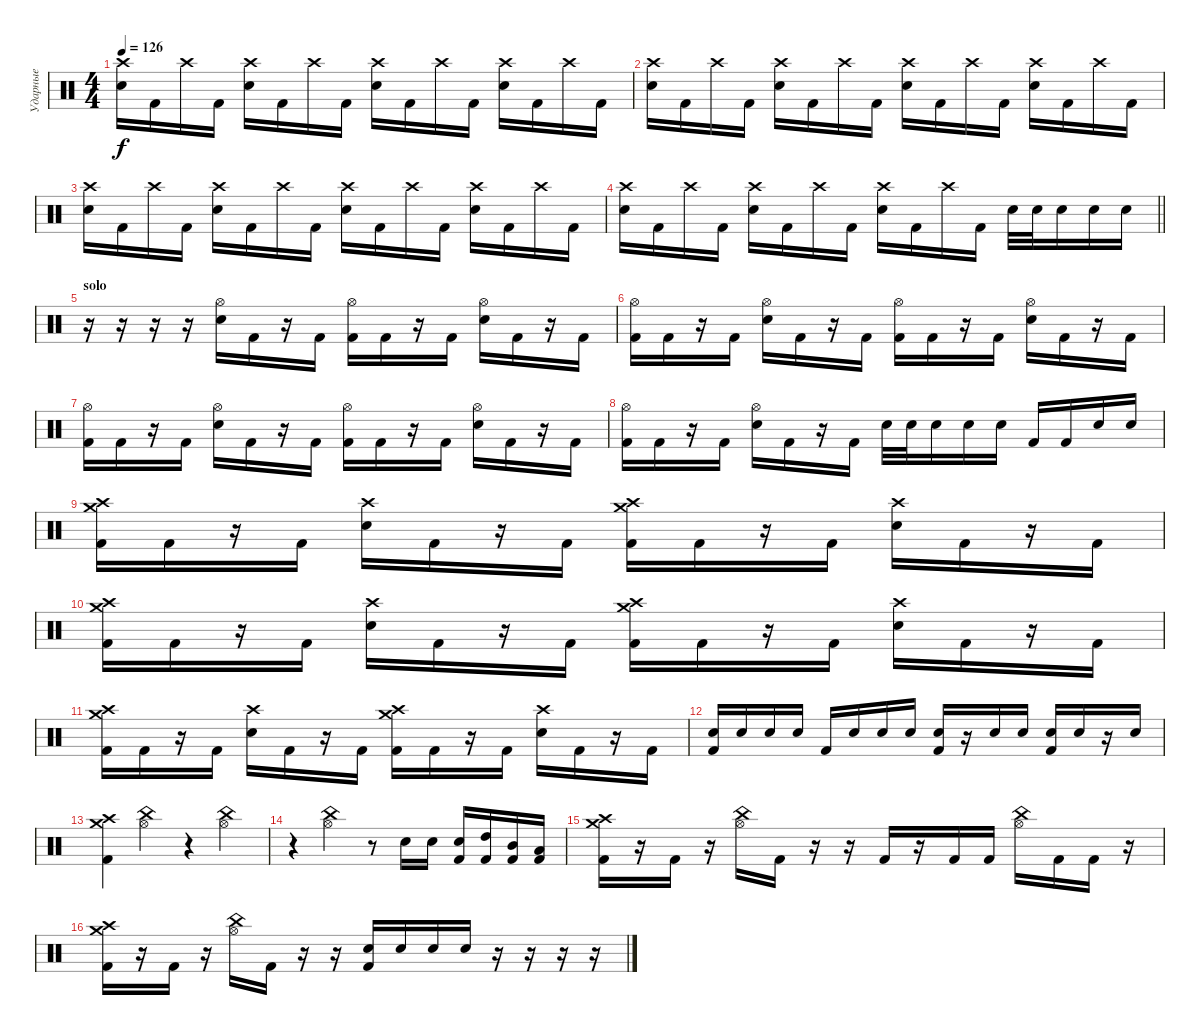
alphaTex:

\track ("Ударные" "Ударные") {instrument percussion}
\staff {score}
\articulation defaults
\ts (4 4)
\tempo 126
\clef neutral
\ks c
("Crash high (hit)" "Electric Snare (hit)").16{dy f} "Kick (hit) 2".16 "Crash high (hit)".16 "Kick (hit) 2".16 ("Crash high (hit)" "Electric Snare (hit)").16 "Kick (hit) 2".16 "Crash high (hit)".16 "Kick (hit) 2".16 ("Crash high (hit)" "Electric Snare (hit)").16 "Kick (hit) 2".16 "Crash high (hit)".16 "Kick (hit) 2".16 ("Crash high (hit)" "Electric Snare (hit)").16 "Kick (hit) 2".16 "Crash high (hit)".16 "Kick (hit) 2".16 |
("Crash high (hit)" "Electric Snare (hit)").16 "Kick (hit) 2".16 "Crash high (hit)".16 "Kick (hit) 2".16 ("Crash high (hit)" "Electric Snare (hit)").16 "Kick (hit) 2".16 "Crash high (hit)".16 "Kick (hit) 2".16 ("Crash high (hit)" "Electric Snare (hit)").16 "Kick (hit) 2".16 "Crash high (hit)".16 "Kick (hit) 2".16 ("Crash high (hit)" "Electric Snare (hit)").16 "Kick (hit) 2".16 "Crash high (hit)".16 "Kick (hit) 2".16 |
("Crash high (hit)" "Electric Snare (hit)").16 "Kick (hit) 2".16 "Crash high (hit)".16 "Kick (hit) 2".16 ("Crash high (hit)" "Electric Snare (hit)").16 "Kick (hit) 2".16 "Crash high (hit)".16 "Kick (hit) 2".16 ("Crash high (hit)" "Electric Snare (hit)").16 "Kick (hit) 2".16 "Crash high (hit)".16 "Kick (hit) 2".16 ("Crash high (hit)" "Electric Snare (hit)").16 "Kick (hit) 2".16 "Crash high (hit)".16 "Kick (hit) 2".16 |
\barLineRight lightlight
("Crash high (hit)" "Electric Snare (hit)").16 "Kick (hit) 2".16 "Crash high (hit)".16 "Kick (hit) 2".16 ("Crash high (hit)" "Electric Snare (hit)").16 "Kick (hit) 2".16 "Crash high (hit)".16 "Kick (hit) 2".16 ("Crash high (hit)" "Electric Snare (hit)").16 "Kick (hit) 2".16 "Crash high (hit)".16 "Kick (hit) 2".16 "Electric Snare (hit)".32 "Electric Snare (hit)".32 "Electric Snare (hit)".16 "Electric Snare (hit)".16 "Electric Snare (hit)".16 |
\section ("" "solo")
r.16 r.16 r.16 r.16 ("Hi-Hat (open)" "Electric Snare (hit)").16 "Kick (hit) 2".16 r.16 "Kick (hit) 2".16 ("Hi-Hat (open)" "Kick (hit) 2").16 "Kick (hit) 2".16 r.16 "Kick (hit) 2".16 ("Hi-Hat (open)" "Electric Snare (hit)").16 "Kick (hit) 2".16 r.16 "Kick (hit) 2".16 |
("Hi-Hat (open)" "Kick (hit) 2").16 "Kick (hit) 2".16 r.16 "Kick (hit) 2".16 ("Hi-Hat (open)" "Electric Snare (hit)").16 "Kick (hit) 2".16 r.16 "Kick (hit) 2".16 ("Hi-Hat (open)" "Kick (hit) 2").16 "Kick (hit) 2".16 r.16 "Kick (hit) 2".16 ("Hi-Hat (open)" "Electric Snare (hit)").16 "Kick (hit) 2".16 r.16 "Kick (hit) 2".16 |
("Hi-Hat (open)" "Kick (hit) 2").16 "Kick (hit) 2".16 r.16 "Kick (hit) 2".16 ("Hi-Hat (open)" "Electric Snare (hit)").16 "Kick (hit) 2".16 r.16 "Kick (hit) 2".16 ("Hi-Hat (open)" "Kick (hit) 2").16 "Kick (hit) 2".16 r.16 "Kick (hit) 2".16 ("Hi-Hat (open)" "Electric Snare (hit)").16 "Kick (hit) 2".16 r.16 "Kick (hit) 2".16 |
("Hi-Hat (open)" "Kick (hit) 2").16 "Kick (hit) 2".16 r.16 "Kick (hit) 2".16 ("Hi-Hat (open)" "Electric Snare (hit)").16 "Kick (hit) 2".16 r.16 "Kick (hit) 2".16 "Electric Snare (hit)".32 "Electric Snare (hit)".32 "Electric Snare (hit)".16 "Electric Snare (hit)".16 "Electric Snare (hit)".16 "Kick (hit) 2".16 "Kick (hit) 2".16 "Electric Snare (hit)".16 "Electric Snare (hit)".16 |
("Crash high (hit)" "Crash medium (hit)" "Kick (hit) 2").16 "Kick (hit) 2".16 r.16 "Kick (hit) 2".16 ("Crash high (hit)" "Electric Snare (hit)").16 "Kick (hit) 2".16 r.16 "Kick (hit) 2".16 ("Crash high (hit)" "Crash medium (hit)" "Kick (hit) 2").16 "Kick (hit) 2".16 r.16 "Kick (hit) 2".16 ("Crash high (hit)" "Electric Snare (hit)").16 "Kick (hit) 2".16 r.16 "Kick (hit) 2".16 |
("Crash high (hit)" "Crash medium (hit)" "Kick (hit) 2").16 "Kick (hit) 2".16 r.16 "Kick (hit) 2".16 ("Crash high (hit)" "Electric Snare (hit)").16 "Kick (hit) 2".16 r.16 "Kick (hit) 2".16 ("Crash high (hit)" "Crash medium (hit)" "Kick (hit) 2").16 "Kick (hit) 2".16 r.16 "Kick (hit) 2".16 ("Crash high (hit)" "Electric Snare (hit)").16 "Kick (hit) 2".16 r.16 "Kick (hit) 2".16 |
("Crash high (hit)" "Crash medium (hit)" "Kick (hit) 2").16 "Kick (hit) 2".16 r.16 "Kick (hit) 2".16 ("Crash high (hit)" "Electric Snare (hit)").16 "Kick (hit) 2".16 r.16 "Kick (hit) 2".16 ("Crash high (hit)" "Crash medium (hit)" "Kick (hit) 2").16 "Kick (hit) 2".16 r.16 "Kick (hit) 2".16 ("Crash high (hit)" "Electric Snare (hit)").16 "Kick (hit) 2".16 r.16 "Kick (hit) 2".16 |
("Electric Snare (hit)" "Kick (hit) 2").16 "Electric Snare (hit)".16 "Electric Snare (hit)".16 "Electric Snare (hit)".16 "Kick (hit) 2".16 "Electric Snare (hit)".16 "Electric Snare (hit)".16 "Electric Snare (hit)".16 ("Electric Snare (hit)" "Kick (hit) 2").16 r.16 "Electric Snare (hit)".16 "Electric Snare (hit)".16 ("Electric Snare (hit)" "Kick (hit) 2").16 "Electric Snare (hit)".16 r.16 "Electric Snare (hit)".16 |
("Crash high (hit)" "Crash medium (hit)" "Kick (hit) 2").4 ("China (hit)" "Hi-Hat (open)").4 r.4 ("China (hit)" "Hi-Hat (open)").4 |
r.4 ("China (hit)" "Hi-Hat (open)").4 r.8 "Electric Snare (hit)".16 "Electric Snare (hit)".16 ("Electric Snare (hit)" "Kick (hit) 2").16 ("High Tom (hit)" "Kick (hit) 2").16 ("Mid Tom (hit)" "Kick (hit) 2").16 ("Low Tom (hit)" "Kick (hit) 2").16 |
("Crash high (hit)" "Crash medium (hit)" "Kick (hit) 2").16 r.16 "Kick (hit) 2".16 r.16 ("China (hit)" "Hi-Hat (open)").16 "Kick (hit) 2".16 r.16 r.16 "Kick (hit) 2".16 r.16 "Kick (hit) 2".16 "Kick (hit) 2".16 ("China (hit)" "Hi-Hat (open)").16 "Kick (hit) 2".16 "Kick (hit) 2".16 r.16 |
("Crash high (hit)" "Crash medium (hit)" "Kick (hit) 2").16 r.16 "Kick (hit) 2".16 r.16 ("China (hit)" "Hi-Hat (open)").16 "Kick (hit) 2".16 r.16 r.16 ("Electric Snare (hit)" "Kick (hit) 2").16 "Electric Snare (hit)".16 "Electric Snare (hit)".16 "Electric Snare (hit)".16 r.16 r.16 r.16 r.16
